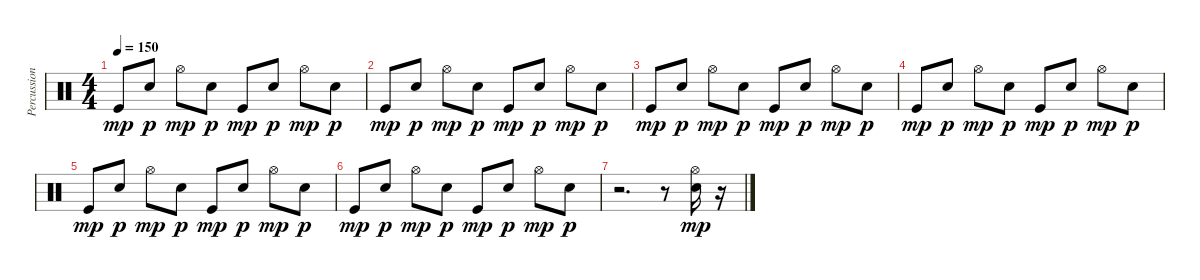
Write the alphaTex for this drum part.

\track ("Percussion" "Percussion") {instrument percussion}
\staff {score}
\articulation defaults
\ts (4 4)
\tempo 150
\clef neutral
\ks c "Kick (hit)".8{dy mp} "Electric Snare (hit)".8{dy p} "Hi-Hat (open)".8{dy mp} "Electric Snare (hit)".8{dy p} "Kick (hit)".8{dy mp} "Electric Snare (hit)".8{dy p} "Hi-Hat (open)".8{dy mp} "Electric Snare (hit)".8{dy p}
|
"Kick (hit)".8{dy mp} "Electric Snare (hit)".8{dy p} "Hi-Hat (open)".8{dy mp} "Electric Snare (hit)".8{dy p} "Kick (hit)".8{dy mp} "Electric Snare (hit)".8{dy p} "Hi-Hat (open)".8{dy mp} "Electric Snare (hit)".8{dy p} |
"Kick (hit)".8{dy mp} "Electric Snare (hit)".8{dy p} "Hi-Hat (open)".8{dy mp} "Electric Snare (hit)".8{dy p} "Kick (hit)".8{dy mp} "Electric Snare (hit)".8{dy p} "Hi-Hat (open)".8{dy mp} "Electric Snare (hit)".8{dy p} |
"Kick (hit)".8{dy mp} "Electric Snare (hit)".8{dy p} "Hi-Hat (open)".8{dy mp} "Electric Snare (hit)".8{dy p} "Kick (hit)".8{dy mp} "Electric Snare (hit)".8{dy p} "Hi-Hat (open)".8{dy mp} "Electric Snare (hit)".8{dy p} |
"Kick (hit)".8{dy mp} "Electric Snare (hit)".8{dy p} "Hi-Hat (open)".8{dy mp} "Electric Snare (hit)".8{dy p} "Kick (hit)".8{dy mp} "Electric Snare (hit)".8{dy p} "Hi-Hat (open)".8{dy mp} "Electric Snare (hit)".8{dy p} |
"Kick (hit)".8{dy mp} "Electric Snare (hit)".8{dy p} "Hi-Hat (open)".8{dy mp} "Electric Snare (hit)".8{dy p} "Kick (hit)".8{dy mp} "Electric Snare (hit)".8{dy p} "Hi-Hat (open)".8{dy mp} "Electric Snare (hit)".8{dy p} |
r.2{d} r.8 ("Hi-Hat (open)" "Snare (hit) 2").16{dy mp} r.16
